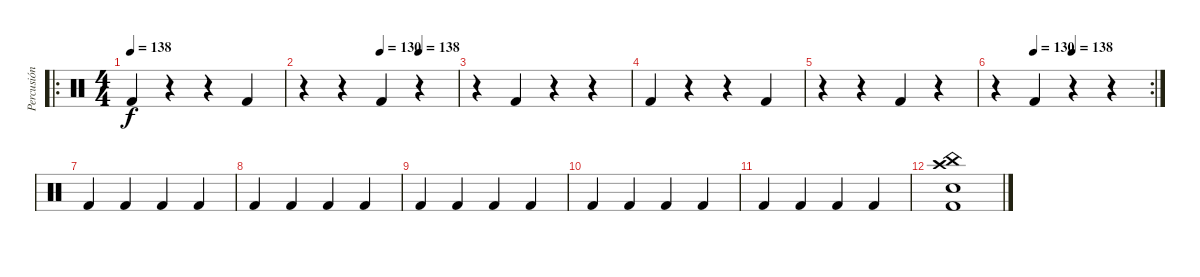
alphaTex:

\track ("Percusión" "Percusión") {instrument percussion}
\staff {score}
\articulation defaults
\ro
\ts (4 4)
\tempo 138
\clef neutral
\ks c "Kick (hit) 2".4{dy f}
r.4 r.4 "Kick (hit) 2".4 |
\tempo (130 0.5)
\tempo (138 0.75)
r.4 r.4 "Kick (hit) 2".4 r.4 |
r.4 "Kick (hit) 2".4 r.4 r.4 |
"Kick (hit) 2".4 r.4 r.4 "Kick (hit) 2".4 |
r.4 r.4 "Kick (hit) 2".4 r.4 |
\rc 2
\tempo (130 0.25)
\tempo (138 0.5)
r.4 "Kick (hit) 2".4 r.4 r.4 |
"Kick (hit) 2".4 "Kick (hit) 2".4 "Kick (hit) 2".4 "Kick (hit) 2".4 |
"Kick (hit) 2".4 "Kick (hit) 2".4 "Kick (hit) 2".4 "Kick (hit) 2".4 |
"Kick (hit) 2".4 "Kick (hit) 2".4 "Kick (hit) 2".4 "Kick (hit) 2".4 |
"Kick (hit) 2".4 "Kick (hit) 2".4 "Kick (hit) 2".4 "Kick (hit) 2".4 |
"Kick (hit) 2".4 "Kick (hit) 2".4 "Kick (hit) 2".4 "Kick (hit) 2".4 |
("Snare (hit) 2" "China (hit)" "Kick (hit) 2" "Crash high (hit)").1
